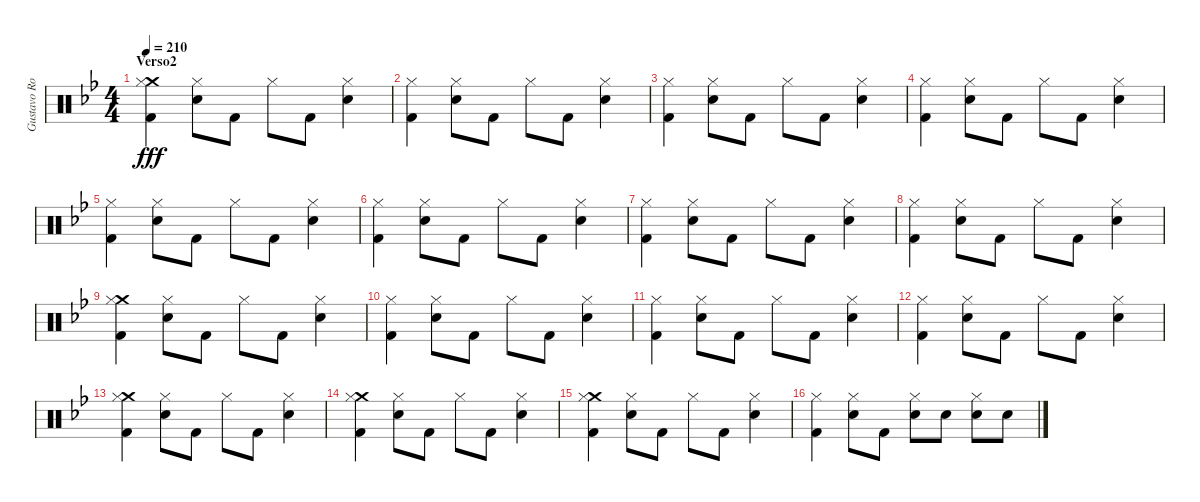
\track ("Gustavo Rowek" "Gustavo Ro") {instrument percussion}
\staff {score}
\articulation defaults
\ts (4 4)
\section ("" "Verso2")
\tempo 210
\clef neutral
\ks gminor
("Crash medium (hit)" "Hi-Hat (closed)" "Kick (hit) 2").4{dy fff} ("Hi-Hat (closed)" "Snare (hit) 2").8 "Kick (hit) 2".8 "Hi-Hat (closed)".8 "Kick (hit) 2".8 ("Hi-Hat (closed)" "Snare (hit) 2").4 |
("Hi-Hat (closed)" "Kick (hit) 2").4 ("Hi-Hat (closed)" "Snare (hit) 2").8 "Kick (hit) 2".8 "Hi-Hat (closed)".8 "Kick (hit) 2".8 ("Hi-Hat (closed)" "Snare (hit) 2").4 |
("Hi-Hat (closed)" "Kick (hit) 2").4 ("Hi-Hat (closed)" "Snare (hit) 2").8 "Kick (hit) 2".8 "Hi-Hat (closed)".8 "Kick (hit) 2".8 ("Hi-Hat (closed)" "Snare (hit) 2").4 |
("Hi-Hat (closed)" "Kick (hit) 2").4 ("Hi-Hat (closed)" "Snare (hit) 2").8 "Kick (hit) 2".8 "Hi-Hat (closed)".8 "Kick (hit) 2".8 ("Hi-Hat (closed)" "Snare (hit) 2").4 |
("Hi-Hat (closed)" "Kick (hit) 2").4 ("Hi-Hat (closed)" "Snare (hit) 2").8 "Kick (hit) 2".8 "Hi-Hat (closed)".8 "Kick (hit) 2".8 ("Hi-Hat (closed)" "Snare (hit) 2").4 |
("Hi-Hat (closed)" "Kick (hit) 2").4 ("Hi-Hat (closed)" "Snare (hit) 2").8 "Kick (hit) 2".8 "Hi-Hat (closed)".8 "Kick (hit) 2".8 ("Hi-Hat (closed)" "Snare (hit) 2").4 |
("Hi-Hat (closed)" "Kick (hit) 2").4 ("Hi-Hat (closed)" "Snare (hit) 2").8 "Kick (hit) 2".8 "Hi-Hat (closed)".8 "Kick (hit) 2".8 ("Hi-Hat (closed)" "Snare (hit) 2").4 |
("Hi-Hat (closed)" "Kick (hit) 2").4 ("Hi-Hat (closed)" "Snare (hit) 2").8 "Kick (hit) 2".8 "Hi-Hat (closed)".8 "Kick (hit) 2".8 ("Hi-Hat (closed)" "Snare (hit) 2").4 |
("Crash medium (hit)" "Hi-Hat (closed)" "Kick (hit) 2").4 ("Hi-Hat (closed)" "Snare (hit) 2").8 "Kick (hit) 2".8 "Hi-Hat (closed)".8 "Kick (hit) 2".8 ("Hi-Hat (closed)" "Snare (hit) 2").4 |
("Hi-Hat (closed)" "Kick (hit) 2").4 ("Hi-Hat (closed)" "Snare (hit) 2").8 "Kick (hit) 2".8 "Hi-Hat (closed)".8 "Kick (hit) 2".8 ("Hi-Hat (closed)" "Snare (hit) 2").4 |
("Hi-Hat (closed)" "Kick (hit) 2").4 ("Hi-Hat (closed)" "Snare (hit) 2").8 "Kick (hit) 2".8 "Hi-Hat (closed)".8 "Kick (hit) 2".8 ("Hi-Hat (closed)" "Snare (hit) 2").4 |
("Hi-Hat (closed)" "Kick (hit) 2").4 ("Hi-Hat (closed)" "Snare (hit) 2").8 "Kick (hit) 2".8 "Hi-Hat (closed)".8 "Kick (hit) 2".8 ("Hi-Hat (closed)" "Snare (hit) 2").4 |
("Crash medium (hit)" "Hi-Hat (closed)" "Kick (hit) 2").4 ("Hi-Hat (closed)" "Snare (hit) 2").8 "Kick (hit) 2".8 "Hi-Hat (closed)".8 "Kick (hit) 2".8 ("Hi-Hat (closed)" "Snare (hit) 2").4 |
("Crash medium (hit)" "Hi-Hat (closed)" "Kick (hit) 2").4 ("Hi-Hat (closed)" "Snare (hit) 2").8 "Kick (hit) 2".8 "Hi-Hat (closed)".8 "Kick (hit) 2".8 ("Hi-Hat (closed)" "Snare (hit) 2").4 |
("Crash medium (hit)" "Hi-Hat (closed)" "Kick (hit) 2").4 ("Hi-Hat (closed)" "Snare (hit) 2").8 "Kick (hit) 2".8 "Hi-Hat (closed)".8 "Kick (hit) 2".8 ("Hi-Hat (closed)" "Snare (hit) 2").4 |
("Hi-Hat (closed)" "Kick (hit) 2").4 ("Hi-Hat (closed)" "Snare (hit) 2").8 "Kick (hit) 2".8 ("Hi-Hat (closed)" "Snare (hit) 2").8 "Snare (hit) 2".8 ("Hi-Hat (closed)" "Snare (hit) 2").8 "Snare (hit) 2".8
